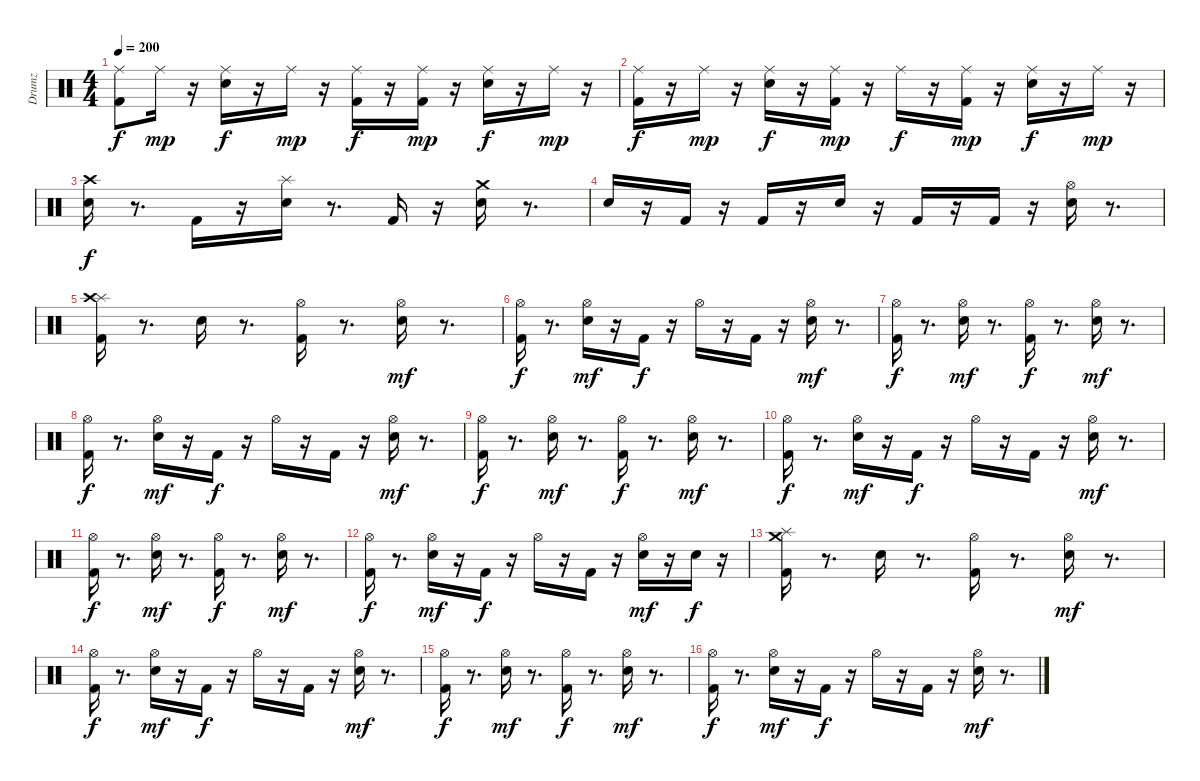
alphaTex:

\track ("Drumz" "Drumz") {instrument percussion}
\staff {score}
\articulation defaults
\ts (4 4)
\tempo 200
\clef neutral
\ks c
("Kick (hit) 2" "Ride (middle)").8{dy f} "Ride (middle)".16{dy mp} r.16 ("Snare (hit) 2" "Ride (middle)").16{dy f} r.16 "Ride (middle)".16{dy mp} r.16 ("Kick (hit) 2" "Ride (middle)").16{dy f} r.16 ("Kick (hit) 2" "Ride (middle)").16{dy mp} r.16 ("Snare (hit) 2" "Ride (middle)").16{dy f} r.16 "Ride (middle)".16{dy mp} r.16 |
("Kick (hit) 2" "Ride (middle)").16{dy f} r.16 "Ride (middle)".16{dy mp} r.16 ("Snare (hit) 2" "Ride (middle)").16{dy f} r.16 ("Kick (hit) 2" "Ride (middle)").16{dy mp} r.16 "Ride (middle)".16{dy f} r.16 ("Kick (hit) 2" "Ride (middle)").16{dy mp} r.16 ("Snare (hit) 2" "Ride (middle)").16{dy f} r.16 "Ride (middle)".16{dy mp} r.16 |
("Snare (hit) 2" "Crash high (hit)").16{dy f} r.8{d} "Kick (hit) 2".16 r.16 ("Snare (hit) 2" "Splash (hit)").16 r.8{d} "Kick (hit) 2".16 r.16 ("Snare (hit) 2" "Crash medium (hit)").16 r.8{d} |
"Snare (hit) 2".16 r.16 "Kick (hit) 2".16 r.16 "Kick (hit) 2".16 r.16 "Snare (hit) 2".16 r.16 "Kick (hit) 2".16 r.16 "Kick (hit) 2".16 r.16 ("Snare (hit) 2" "Hi-Hat (open)").16 r.8{d} |
("Kick (hit) 2" "Splash (hit)" "Crash high (hit)").16 r.8{d} "Snare (hit) 2".16 r.8{d} ("Hi-Hat (open)" "Kick (hit) 2").16 r.8{d} ("Snare (hit) 2" "Hi-Hat (open)").16{dy mf} r.8{d} |
("Kick (hit) 2" "Hi-Hat (open)").16{dy f} r.8{d} ("Snare (hit) 2" "Hi-Hat (open)").16{dy mf} r.16 "Kick (hit) 2".16{dy f} r.16 "Hi-Hat (open)".16 r.16 "Kick (hit) 2".16 r.16 ("Snare (hit) 2" "Hi-Hat (open)").16{dy mf} r.8{d} |
("Kick (hit) 2" "Hi-Hat (open)").16{dy f} r.8{d} ("Snare (hit) 2" "Hi-Hat (open)").16{dy mf} r.8{d} ("Hi-Hat (open)" "Kick (hit) 2").16{dy f} r.8{d} ("Snare (hit) 2" "Hi-Hat (open)").16{dy mf} r.8{d} |
("Kick (hit) 2" "Hi-Hat (open)").16{dy f} r.8{d} ("Snare (hit) 2" "Hi-Hat (open)").16{dy mf} r.16 "Kick (hit) 2".16{dy f} r.16 "Hi-Hat (open)".16 r.16 "Kick (hit) 2".16 r.16 ("Snare (hit) 2" "Hi-Hat (open)").16{dy mf} r.8{d} |
("Kick (hit) 2" "Hi-Hat (open)").16{dy f} r.8{d} ("Snare (hit) 2" "Hi-Hat (open)").16{dy mf} r.8{d} ("Hi-Hat (open)" "Kick (hit) 2").16{dy f} r.8{d} ("Snare (hit) 2" "Hi-Hat (open)").16{dy mf} r.8{d} |
("Kick (hit) 2" "Hi-Hat (open)").16{dy f} r.8{d} ("Snare (hit) 2" "Hi-Hat (open)").16{dy mf} r.16 "Kick (hit) 2".16{dy f} r.16 "Hi-Hat (open)".16 r.16 "Kick (hit) 2".16 r.16 ("Snare (hit) 2" "Hi-Hat (open)").16{dy mf} r.8{d} |
("Kick (hit) 2" "Hi-Hat (open)").16{dy f} r.8{d} ("Snare (hit) 2" "Hi-Hat (open)").16{dy mf} r.8{d} ("Hi-Hat (open)" "Kick (hit) 2").16{dy f} r.8{d} ("Snare (hit) 2" "Hi-Hat (open)").16{dy mf} r.8{d} |
("Kick (hit) 2" "Hi-Hat (open)").16{dy f} r.8{d} ("Snare (hit) 2" "Hi-Hat (open)").16{dy mf} r.16 "Kick (hit) 2".16{dy f} r.16 "Hi-Hat (open)".16 r.16 "Kick (hit) 2".16 r.16 ("Snare (hit) 2" "Hi-Hat (open)").16{dy mf} r.16 "Snare (hit) 2".16{dy f} r.16 |
("Kick (hit) 2" "Splash (hit)" "Crash medium (hit)").16 r.8{d} "Snare (hit) 2".16 r.8{d} ("Hi-Hat (open)" "Kick (hit) 2").16 r.8{d} ("Snare (hit) 2" "Hi-Hat (open)").16{dy mf} r.8{d} |
("Kick (hit) 2" "Hi-Hat (open)").16{dy f} r.8{d} ("Snare (hit) 2" "Hi-Hat (open)").16{dy mf} r.16 "Kick (hit) 2".16{dy f} r.16 "Hi-Hat (open)".16 r.16 "Kick (hit) 2".16 r.16 ("Snare (hit) 2" "Hi-Hat (open)").16{dy mf} r.8{d} |
("Kick (hit) 2" "Hi-Hat (open)").16{dy f} r.8{d} ("Snare (hit) 2" "Hi-Hat (open)").16{dy mf} r.8{d} ("Hi-Hat (open)" "Kick (hit) 2").16{dy f} r.8{d} ("Snare (hit) 2" "Hi-Hat (open)").16{dy mf} r.8{d} |
("Kick (hit) 2" "Hi-Hat (open)").16{dy f} r.8{d} ("Snare (hit) 2" "Hi-Hat (open)").16{dy mf} r.16 "Kick (hit) 2".16{dy f} r.16 "Hi-Hat (open)".16 r.16 "Kick (hit) 2".16 r.16 ("Snare (hit) 2" "Hi-Hat (open)").16{dy mf} r.8{d}
